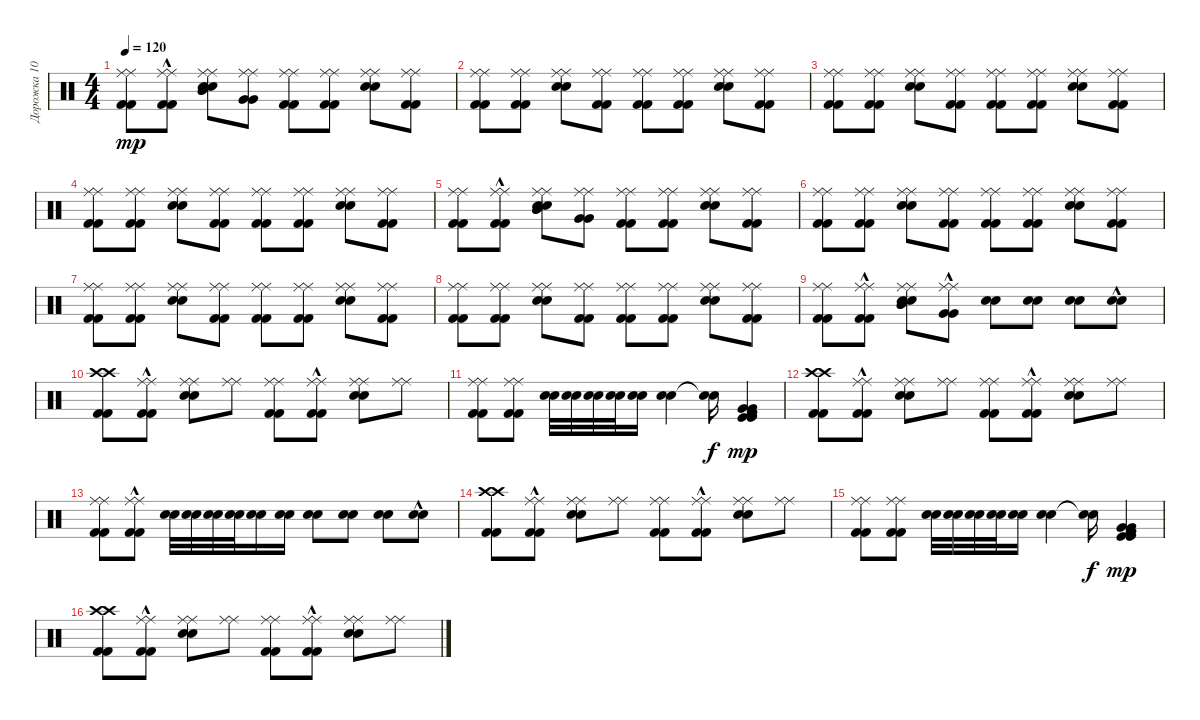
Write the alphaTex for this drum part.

\track ("Дорожка 10" "Дорожка 10") {instrument percussion}
\staff {score}
\articulation defaults
\ts (4 4)
\tempo 120
\clef neutral
\ks c
("Kick (hit) 2" "Ride (middle)" "Kick (hit) 2" "Ride (middle)").8{dy mp} ("Kick (hit) 2"{hac} "Ride (middle)" "Kick (hit) 2"{hac} "Ride (middle)").8 ("Snare (hit) 2" "Mid Tom (hit)" "Ride (middle)" "Snare (hit) 2" "Mid Tom (hit)" "Ride (middle)").8 ("Very Low Tom (hit)" "Ride (middle)" "Very Low Tom (hit)" "Ride (middle)").8 ("Kick (hit) 2" "Ride (middle)" "Kick (hit) 2" "Ride (middle)").8 ("Kick (hit) 2" "Ride (middle)" "Kick (hit) 2" "Ride (middle)").8 ("Snare (hit) 2" "Ride (middle)" "Snare (hit) 2" "Ride (middle)").8 ("Kick (hit) 2" "Ride (middle)" "Kick (hit) 2" "Ride (middle)").8 |
("Kick (hit) 2" "Ride (middle)" "Kick (hit) 2" "Ride (middle)").8 ("Kick (hit) 2" "Ride (middle)" "Kick (hit) 2" "Ride (middle)").8 ("Snare (hit) 2" "Ride (middle)" "Snare (hit) 2" "Ride (middle)").8 ("Kick (hit) 2" "Ride (middle)" "Kick (hit) 2" "Ride (middle)").8 ("Kick (hit) 2" "Ride (middle)" "Kick (hit) 2" "Ride (middle)").8 ("Kick (hit) 2" "Ride (middle)" "Kick (hit) 2" "Ride (middle)").8 ("Snare (hit) 2" "Ride (middle)" "Snare (hit) 2" "Ride (middle)").8 ("Kick (hit) 2" "Ride (middle)" "Kick (hit) 2" "Ride (middle)").8 |
("Kick (hit) 2" "Ride (middle)" "Kick (hit) 2" "Ride (middle)").8 ("Kick (hit) 2" "Ride (middle)" "Kick (hit) 2" "Ride (middle)").8 ("Snare (hit) 2" "Ride (middle)" "Snare (hit) 2" "Ride (middle)").8 ("Kick (hit) 2" "Ride (middle)" "Kick (hit) 2" "Ride (middle)").8 ("Kick (hit) 2" "Ride (middle)" "Kick (hit) 2" "Ride (middle)").8 ("Kick (hit) 2" "Ride (middle)" "Kick (hit) 2" "Ride (middle)").8 ("Snare (hit) 2" "Ride (middle)" "Snare (hit) 2" "Ride (middle)").8 ("Kick (hit) 2" "Ride (middle)" "Kick (hit) 2" "Ride (middle)").8 |
("Kick (hit) 2" "Ride (middle)" "Kick (hit) 2" "Ride (middle)").8 ("Kick (hit) 2" "Ride (middle)" "Kick (hit) 2" "Ride (middle)").8 ("Snare (hit) 2" "Ride (middle)" "Snare (hit) 2" "Ride (middle)").8 ("Kick (hit) 2" "Ride (middle)" "Kick (hit) 2" "Ride (middle)").8 ("Kick (hit) 2" "Ride (middle)" "Kick (hit) 2" "Ride (middle)").8 ("Kick (hit) 2" "Ride (middle)" "Kick (hit) 2" "Ride (middle)").8 ("Snare (hit) 2" "Ride (middle)" "Snare (hit) 2" "Ride (middle)").8 ("Kick (hit) 2" "Ride (middle)" "Kick (hit) 2" "Ride (middle)").8 |
("Kick (hit) 2" "Ride (middle)" "Kick (hit) 2" "Ride (middle)").8 ("Kick (hit) 2"{hac} "Ride (middle)" "Kick (hit) 2"{hac} "Ride (middle)").8 ("Snare (hit) 2" "Mid Tom (hit)" "Ride (middle)" "Snare (hit) 2" "Mid Tom (hit)" "Ride (middle)").8 ("Very Low Tom (hit)" "Ride (middle)" "Very Low Tom (hit)" "Ride (middle)").8 ("Kick (hit) 2" "Ride (middle)" "Kick (hit) 2" "Ride (middle)").8 ("Kick (hit) 2" "Ride (middle)" "Kick (hit) 2" "Ride (middle)").8 ("Snare (hit) 2" "Ride (middle)" "Snare (hit) 2" "Ride (middle)").8 ("Kick (hit) 2" "Ride (middle)" "Kick (hit) 2" "Ride (middle)").8 |
("Kick (hit) 2" "Ride (middle)" "Kick (hit) 2" "Ride (middle)").8 ("Kick (hit) 2" "Ride (middle)" "Kick (hit) 2" "Ride (middle)").8 ("Snare (hit) 2" "Ride (middle)" "Snare (hit) 2" "Ride (middle)").8 ("Kick (hit) 2" "Ride (middle)" "Kick (hit) 2" "Ride (middle)").8 ("Kick (hit) 2" "Ride (middle)" "Kick (hit) 2" "Ride (middle)").8 ("Kick (hit) 2" "Ride (middle)" "Kick (hit) 2" "Ride (middle)").8 ("Snare (hit) 2" "Ride (middle)" "Snare (hit) 2" "Ride (middle)").8 ("Kick (hit) 2" "Ride (middle)" "Kick (hit) 2" "Ride (middle)").8 |
("Kick (hit) 2" "Ride (middle)" "Kick (hit) 2" "Ride (middle)").8 ("Kick (hit) 2" "Ride (middle)" "Kick (hit) 2" "Ride (middle)").8 ("Snare (hit) 2" "Ride (middle)" "Snare (hit) 2" "Ride (middle)").8 ("Kick (hit) 2" "Ride (middle)" "Kick (hit) 2" "Ride (middle)").8 ("Kick (hit) 2" "Ride (middle)" "Kick (hit) 2" "Ride (middle)").8 ("Kick (hit) 2" "Ride (middle)" "Kick (hit) 2" "Ride (middle)").8 ("Snare (hit) 2" "Ride (middle)" "Snare (hit) 2" "Ride (middle)").8 ("Kick (hit) 2" "Ride (middle)" "Kick (hit) 2" "Ride (middle)").8 |
("Kick (hit) 2" "Ride (middle)" "Kick (hit) 2" "Ride (middle)").8 ("Kick (hit) 2" "Ride (middle)" "Kick (hit) 2" "Ride (middle)").8 ("Snare (hit) 2" "Ride (middle)" "Snare (hit) 2" "Ride (middle)").8 ("Kick (hit) 2" "Ride (middle)" "Kick (hit) 2" "Ride (middle)").8 ("Kick (hit) 2" "Ride (middle)" "Kick (hit) 2" "Ride (middle)").8 ("Kick (hit) 2" "Ride (middle)" "Kick (hit) 2" "Ride (middle)").8 ("Snare (hit) 2" "Ride (middle)" "Snare (hit) 2" "Ride (middle)").8 ("Kick (hit) 2" "Ride (middle)" "Kick (hit) 2" "Ride (middle)").8 |
("Kick (hit) 2" "Ride (middle)" "Kick (hit) 2" "Ride (middle)").8 ("Kick (hit) 2"{hac} "Ride (middle)" "Kick (hit) 2"{hac} "Ride (middle)").8 ("Snare (hit) 2" "Mid Tom (hit)" "Ride (middle)" "Snare (hit) 2" "Mid Tom (hit)" "Ride (middle)").8 ("Very Low Tom (hit)" "Ride (middle)"{hac} "Very Low Tom (hit)" "Ride (middle)"{hac}).8 ("Snare (hit) 2" "Snare (hit) 2").8 ("Snare (hit) 2" "Snare (hit) 2").8 ("Snare (hit) 2" "Snare (hit) 2").8 ("Snare (hit) 2"{hac} "Snare (hit) 2"{hac}).8 |
("Kick (hit) 2" "Crash high (hit)" "Kick (hit) 2" "Crash high (hit)").8 ("Kick (hit) 2"{hac} "Ride (middle)" "Kick (hit) 2"{hac} "Ride (middle)").8 ("Snare (hit) 2" "Ride (middle)" "Snare (hit) 2" "Ride (middle)").8 ("Ride (middle)" "Ride (middle)").8 ("Kick (hit) 2" "Ride (middle)" "Kick (hit) 2" "Ride (middle)").8 ("Kick (hit) 2"{hac} "Ride (middle)" "Kick (hit) 2"{hac} "Ride (middle)").8 ("Snare (hit) 2" "Ride (middle)" "Snare (hit) 2" "Ride (middle)").8 ("Ride (middle)" "Ride (middle)").8 |
("Kick (hit) 2" "Ride (middle)" "Kick (hit) 2" "Ride (middle)").8 ("Kick (hit) 2" "Ride (middle)" "Kick (hit) 2" "Ride (middle)").8 ("Snare (hit) 2" "Snare (hit) 2").32 ("Snare (hit) 2" "Snare (hit) 2").32 ("Snare (hit) 2" "Snare (hit) 2").32 ("Snare (hit) 2" "Snare (hit) 2").32 ("Snare (hit) 2" "Snare (hit) 2").16 ("Snare (hit) 2" "Snare (hit) 2").4 ("Snare (hit)"{t} "Snare (hit)"{t}).16{dy f} ("Kick (hit)" "Kick (hit) 2" "Very Low Tom (hit)" "Kick (hit)" "Kick (hit) 2" "Very Low Tom (hit)").4{dy mp} |
("Kick (hit) 2" "Crash high (hit)" "Kick (hit) 2" "Crash high (hit)").8 ("Kick (hit) 2"{hac} "Ride (middle)" "Kick (hit) 2"{hac} "Ride (middle)").8 ("Snare (hit) 2" "Ride (middle)" "Snare (hit) 2" "Ride (middle)").8 ("Ride (middle)" "Ride (middle)").8 ("Kick (hit) 2" "Ride (middle)" "Kick (hit) 2" "Ride (middle)").8 ("Kick (hit) 2"{hac} "Ride (middle)" "Kick (hit) 2"{hac} "Ride (middle)").8 ("Snare (hit) 2" "Ride (middle)" "Snare (hit) 2" "Ride (middle)").8 ("Ride (middle)" "Ride (middle)").8 |
("Kick (hit) 2" "Ride (middle)" "Kick (hit) 2" "Ride (middle)").8 ("Kick (hit) 2"{hac} "Ride (middle)" "Kick (hit) 2"{hac} "Ride (middle)").8 ("Snare (hit) 2" "Snare (hit) 2").32 ("Snare (hit) 2" "Snare (hit) 2").32 ("Snare (hit) 2" "Snare (hit) 2").32 ("Snare (hit) 2" "Snare (hit) 2").32 ("Snare (hit) 2" "Snare (hit) 2").16 ("Snare (hit) 2" "Snare (hit) 2").16 ("Snare (hit) 2" "Snare (hit) 2").8 ("Snare (hit) 2" "Snare (hit) 2").8 ("Snare (hit) 2" "Snare (hit) 2").8 ("Snare (hit) 2"{hac} "Snare (hit) 2"{hac}).8 |
("Kick (hit) 2" "Crash high (hit)" "Kick (hit) 2" "Crash high (hit)").8 ("Kick (hit) 2"{hac} "Ride (middle)" "Kick (hit) 2"{hac} "Ride (middle)").8 ("Snare (hit) 2" "Ride (middle)" "Snare (hit) 2" "Ride (middle)").8 ("Ride (middle)" "Ride (middle)").8 ("Kick (hit) 2" "Ride (middle)" "Kick (hit) 2" "Ride (middle)").8 ("Kick (hit) 2"{hac} "Ride (middle)" "Kick (hit) 2"{hac} "Ride (middle)").8 ("Snare (hit) 2" "Ride (middle)" "Snare (hit) 2" "Ride (middle)").8 ("Ride (middle)" "Ride (middle)").8 |
("Kick (hit) 2" "Ride (middle)" "Kick (hit) 2" "Ride (middle)").8 ("Kick (hit) 2" "Ride (middle)" "Kick (hit) 2" "Ride (middle)").8 ("Snare (hit) 2" "Snare (hit) 2").32 ("Snare (hit) 2" "Snare (hit) 2").32 ("Snare (hit) 2" "Snare (hit) 2").32 ("Snare (hit) 2" "Snare (hit) 2").32 ("Snare (hit) 2" "Snare (hit) 2").16 ("Snare (hit) 2" "Snare (hit) 2").4 ("Snare (hit)"{t} "Snare (hit)"{t}).16{dy f} ("Kick (hit)" "Kick (hit) 2" "Very Low Tom (hit)" "Kick (hit)" "Kick (hit) 2" "Very Low Tom (hit)").4{dy mp} |
("Kick (hit) 2" "Crash high (hit)" "Kick (hit) 2" "Crash high (hit)").8 ("Kick (hit) 2"{hac} "Ride (middle)" "Kick (hit) 2"{hac} "Ride (middle)").8 ("Snare (hit) 2" "Ride (middle)" "Snare (hit) 2" "Ride (middle)").8 ("Ride (middle)" "Ride (middle)").8 ("Kick (hit) 2" "Ride (middle)" "Kick (hit) 2" "Ride (middle)").8 ("Kick (hit) 2"{hac} "Ride (middle)" "Kick (hit) 2"{hac} "Ride (middle)").8 ("Snare (hit) 2" "Ride (middle)" "Snare (hit) 2" "Ride (middle)").8 ("Ride (middle)" "Ride (middle)").8
